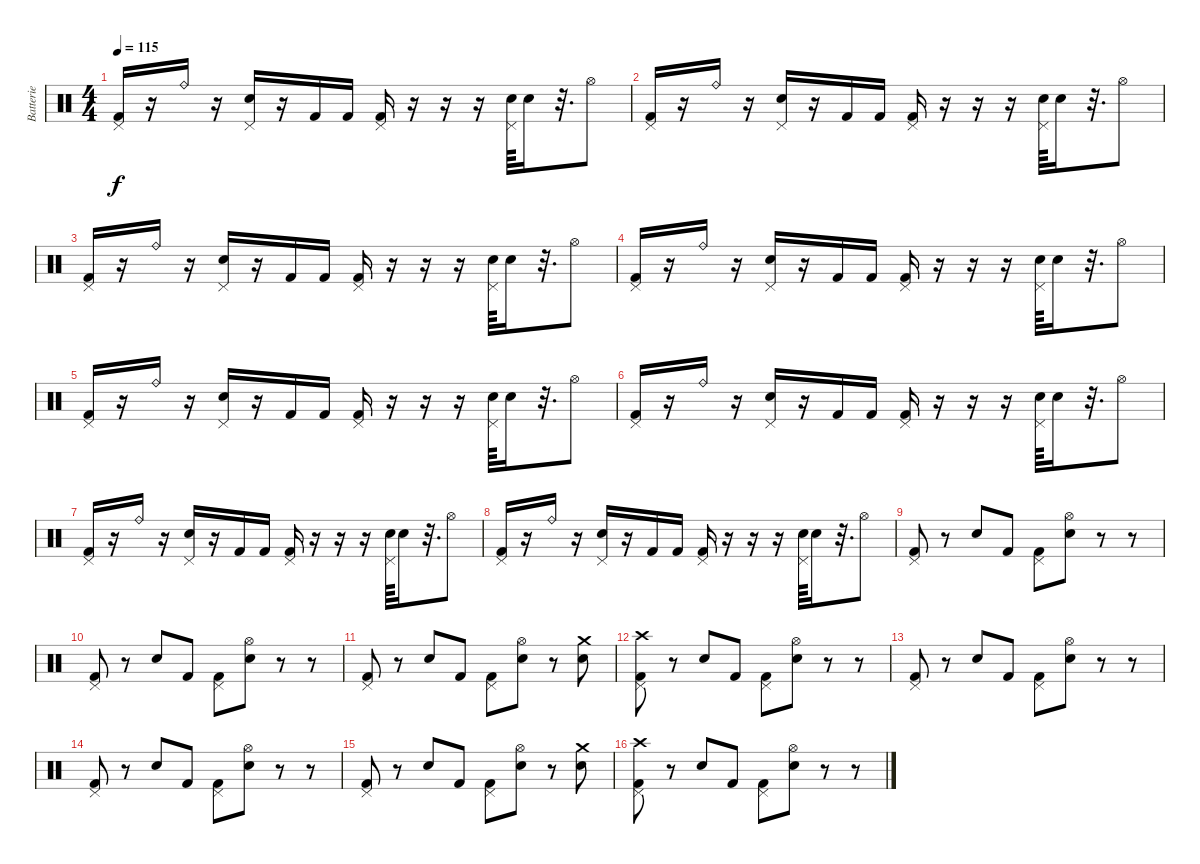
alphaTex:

\track ("Batterie" "Batterie") {instrument percussion}
\staff {score}
\articulation defaults
\ts (4 4)
\tempo 115
\clef neutral
\ks c
("Pedal Hi-Hat (hit)" "Kick (hit) 2").16{dy f} r.16 "Ride (bell)".16 r.16 ("Pedal Hi-Hat (hit)" "Electric Snare (hit)").16 r.16 "Kick (hit) 2".16 "Kick (hit) 2".16 ("Pedal Hi-Hat (hit)" "Kick (hit) 2").16 r.16 r.16 r.16 ("Pedal Hi-Hat (hit)" "Electric Snare (hit)").64 "Electric Snare (hit)".16 r.32{d} "Hi-Hat (open)".8 |
("Pedal Hi-Hat (hit)" "Kick (hit) 2").16 r.16 "Ride (bell)".16 r.16 ("Pedal Hi-Hat (hit)" "Electric Snare (hit)").16 r.16 "Kick (hit) 2".16 "Kick (hit) 2".16 ("Pedal Hi-Hat (hit)" "Kick (hit) 2").16 r.16 r.16 r.16 ("Pedal Hi-Hat (hit)" "Electric Snare (hit)").64 "Electric Snare (hit)".16 r.32{d} "Hi-Hat (open)".8 |
("Pedal Hi-Hat (hit)" "Kick (hit) 2").16 r.16 "Ride (bell)".16 r.16 ("Pedal Hi-Hat (hit)" "Electric Snare (hit)").16 r.16 "Kick (hit) 2".16 "Kick (hit) 2".16 ("Pedal Hi-Hat (hit)" "Kick (hit) 2").16 r.16 r.16 r.16 ("Pedal Hi-Hat (hit)" "Electric Snare (hit)").64 "Electric Snare (hit)".16 r.32{d} "Hi-Hat (open)".8 |
("Pedal Hi-Hat (hit)" "Kick (hit) 2").16 r.16 "Ride (bell)".16 r.16 ("Pedal Hi-Hat (hit)" "Electric Snare (hit)").16 r.16 "Kick (hit) 2".16 "Kick (hit) 2".16 ("Pedal Hi-Hat (hit)" "Kick (hit) 2").16 r.16 r.16 r.16 ("Pedal Hi-Hat (hit)" "Electric Snare (hit)").64 "Electric Snare (hit)".16 r.32{d} "Hi-Hat (open)".8 |
("Pedal Hi-Hat (hit)" "Kick (hit) 2").16 r.16 "Ride (bell)".16 r.16 ("Pedal Hi-Hat (hit)" "Electric Snare (hit)").16 r.16 "Kick (hit) 2".16 "Kick (hit) 2".16 ("Pedal Hi-Hat (hit)" "Kick (hit) 2").16 r.16 r.16 r.16 ("Pedal Hi-Hat (hit)" "Electric Snare (hit)").64 "Electric Snare (hit)".16 r.32{d} "Hi-Hat (open)".8 |
("Pedal Hi-Hat (hit)" "Kick (hit) 2").16 r.16 "Ride (bell)".16 r.16 ("Pedal Hi-Hat (hit)" "Electric Snare (hit)").16 r.16 "Kick (hit) 2".16 "Kick (hit) 2".16 ("Pedal Hi-Hat (hit)" "Kick (hit) 2").16 r.16 r.16 r.16 ("Pedal Hi-Hat (hit)" "Electric Snare (hit)").64 "Electric Snare (hit)".16 r.32{d} "Hi-Hat (open)".8 |
("Pedal Hi-Hat (hit)" "Kick (hit) 2").16 r.16 "Ride (bell)".16 r.16 ("Pedal Hi-Hat (hit)" "Electric Snare (hit)").16 r.16 "Kick (hit) 2".16 "Kick (hit) 2".16 ("Pedal Hi-Hat (hit)" "Kick (hit) 2").16 r.16 r.16 r.16 ("Pedal Hi-Hat (hit)" "Electric Snare (hit)").64 "Electric Snare (hit)".16 r.32{d} "Hi-Hat (open)".8 |
("Pedal Hi-Hat (hit)" "Kick (hit) 2").16 r.16 "Ride (bell)".16 r.16 ("Pedal Hi-Hat (hit)" "Electric Snare (hit)").16 r.16 "Kick (hit) 2".16 "Kick (hit) 2".16 ("Pedal Hi-Hat (hit)" "Kick (hit) 2").16 r.16 r.16 r.16 ("Pedal Hi-Hat (hit)" "Electric Snare (hit)").64 "Electric Snare (hit)".16 r.32{d} "Hi-Hat (open)".8 |
("Pedal Hi-Hat (hit)" "Kick (hit) 2").8 r.8 "Electric Snare (hit)".8 "Kick (hit) 2".8 ("Pedal Hi-Hat (hit)" "Kick (hit) 2").8 ("Hi-Hat (open)" "Electric Snare (hit)").8 r.8 r.8 |
("Pedal Hi-Hat (hit)" "Kick (hit) 2").8 r.8 "Electric Snare (hit)".8 "Kick (hit) 2".8 ("Pedal Hi-Hat (hit)" "Kick (hit) 2").8 ("Hi-Hat (open)" "Electric Snare (hit)").8 r.8 r.8 |
("Pedal Hi-Hat (hit)" "Kick (hit) 2").8 r.8 "Electric Snare (hit)".8 "Kick (hit) 2".8 ("Pedal Hi-Hat (hit)" "Kick (hit) 2").8 ("Hi-Hat (open)" "Electric Snare (hit)").8 r.8 ("Crash medium (hit)" "Electric Snare (hit)").8 |
("Crash high (hit)" "Pedal Hi-Hat (hit)" "Kick (hit) 2").8 r.8 "Electric Snare (hit)".8 "Kick (hit) 2".8 ("Pedal Hi-Hat (hit)" "Kick (hit) 2").8 ("Hi-Hat (open)" "Electric Snare (hit)").8 r.8 r.8 |
("Pedal Hi-Hat (hit)" "Kick (hit) 2").8 r.8 "Electric Snare (hit)".8 "Kick (hit) 2".8 ("Pedal Hi-Hat (hit)" "Kick (hit) 2").8 ("Hi-Hat (open)" "Electric Snare (hit)").8 r.8 r.8 |
("Pedal Hi-Hat (hit)" "Kick (hit) 2").8 r.8 "Electric Snare (hit)".8 "Kick (hit) 2".8 ("Pedal Hi-Hat (hit)" "Kick (hit) 2").8 ("Hi-Hat (open)" "Electric Snare (hit)").8 r.8 r.8 |
("Pedal Hi-Hat (hit)" "Kick (hit) 2").8 r.8 "Electric Snare (hit)".8 "Kick (hit) 2".8 ("Pedal Hi-Hat (hit)" "Kick (hit) 2").8 ("Hi-Hat (open)" "Electric Snare (hit)").8 r.8 ("Crash medium (hit)" "Electric Snare (hit)").8 |
("Crash high (hit)" "Pedal Hi-Hat (hit)" "Kick (hit) 2").8 r.8 "Electric Snare (hit)".8 "Kick (hit) 2".8 ("Pedal Hi-Hat (hit)" "Kick (hit) 2").8 ("Hi-Hat (open)" "Electric Snare (hit)").8 r.8 r.8
